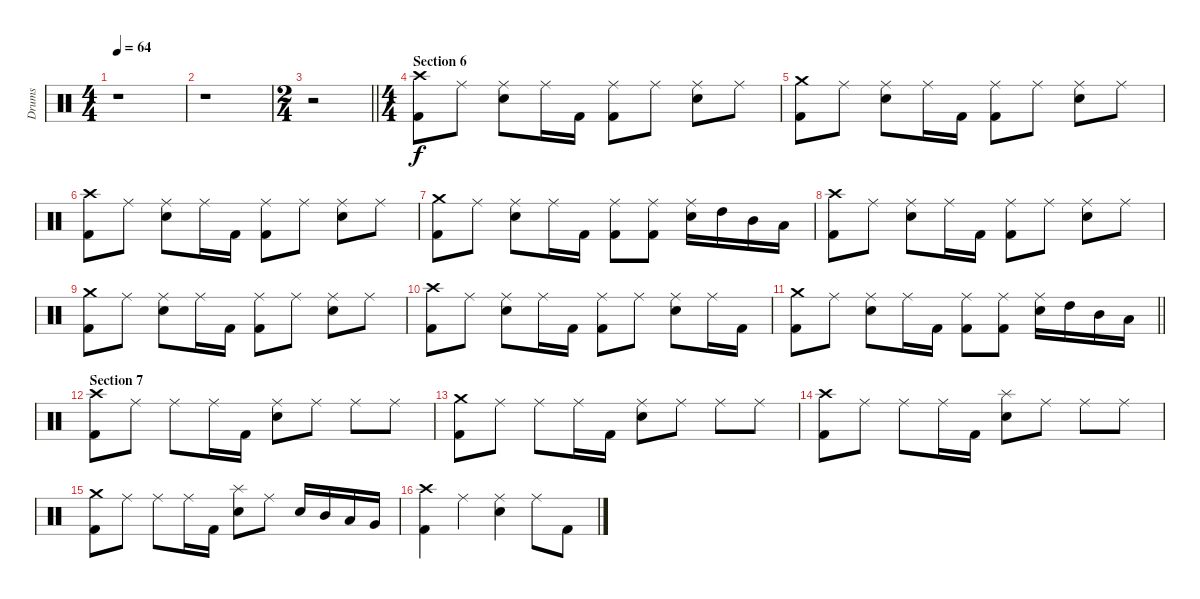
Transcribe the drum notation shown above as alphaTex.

\track ("Drums" "Drums") {instrument percussion}
\staff {score}
\articulation defaults
\ts (4 4)
\tempo 64
\clef neutral
\ks c
r.1{dy f} |
r.1 |
\ts (2 4)
\barLineRight lightlight
r.2 |
\ts (4 4)
\section ("" "Section 6")
("Crash high (hit)" "Kick (hit) 2").8 "Ride (middle)".8 ("Ride (middle)" "Electric Snare (hit)").8 "Ride (middle)".16 "Kick (hit) 2".16 ("Ride (middle)" "Kick (hit) 2").8 "Ride (middle)".8 ("Ride (middle)" "Electric Snare (hit)").8 "Ride (middle)".8 |
("Crash medium (hit)" "Kick (hit) 2").8 "Ride (middle)".8 ("Ride (middle)" "Electric Snare (hit)").8 "Ride (middle)".16 "Kick (hit) 2".16 ("Ride (middle)" "Kick (hit) 2").8 "Ride (middle)".8 ("Ride (middle)" "Electric Snare (hit)").8 "Ride (middle)".8 |
("Crash high (hit)" "Kick (hit) 2").8 "Ride (middle)".8 ("Ride (middle)" "Electric Snare (hit)").8 "Ride (middle)".16 "Kick (hit) 2".16 ("Ride (middle)" "Kick (hit) 2").8 "Ride (middle)".8 ("Ride (middle)" "Electric Snare (hit)").8 "Ride (middle)".8 |
("Crash medium (hit)" "Kick (hit) 2").8 "Ride (middle)".8 ("Ride (middle)" "Electric Snare (hit)").8 "Ride (middle)".16 "Kick (hit) 2".16 ("Ride (middle)" "Kick (hit) 2").8 ("Ride (middle)" "Kick (hit) 2").8 ("Ride (middle)" "Electric Snare (hit)").16 "High Tom (hit)".16 "Mid Tom (hit)".16 "Low Floor Tom (hit)".16 |
("Crash high (hit)" "Kick (hit) 2").8 "Ride (middle)".8 ("Ride (middle)" "Electric Snare (hit)").8 "Ride (middle)".16 "Kick (hit) 2".16 ("Ride (middle)" "Kick (hit) 2").8 "Ride (middle)".8 ("Ride (middle)" "Electric Snare (hit)").8 "Ride (middle)".8 |
("Crash medium (hit)" "Kick (hit) 2").8 "Ride (middle)".8 ("Ride (middle)" "Electric Snare (hit)").8 "Ride (middle)".16 "Kick (hit) 2".16 ("Ride (middle)" "Kick (hit) 2").8 "Ride (middle)".8 ("Ride (middle)" "Electric Snare (hit)").8 "Ride (middle)".8 |
("Crash high (hit)" "Kick (hit) 2").8 "Ride (middle)".8 ("Ride (middle)" "Electric Snare (hit)").8 "Ride (middle)".16 "Kick (hit) 2".16 ("Ride (middle)" "Kick (hit) 2").8 "Ride (middle)".8 ("Ride (middle)" "Electric Snare (hit)").8 "Ride (middle)".16 "Kick (hit) 2".16 |
\barLineRight lightlight
("Crash medium (hit)" "Kick (hit) 2").8 "Ride (middle)".8 ("Ride (middle)" "Electric Snare (hit)").8 "Ride (middle)".16 "Kick (hit) 2".16 ("Ride (middle)" "Kick (hit) 2").8 ("Ride (middle)" "Kick (hit) 2").8 ("Ride (middle)" "Electric Snare (hit)").16 "High Tom (hit)".16 "Mid Tom (hit)".16 "Low Floor Tom (hit)".16 |
\section ("" "Section 7")
("Crash high (hit)" "Kick (hit) 2").8 "Ride (middle)".8 "Ride (middle)".8 "Ride (middle)".16 "Kick (hit) 2".16 ("Ride (middle)" "Electric Snare (hit)").8 "Ride (middle)".8 "Ride (middle)".8 "Ride (middle)".8 |
("Crash medium (hit)" "Kick (hit) 2").8 "Ride (middle)".8 "Ride (middle)".8 "Ride (middle)".16 "Kick (hit) 2".16 ("Ride (middle)" "Electric Snare (hit)").8 "Ride (middle)".8 "Ride (middle)".8 "Ride (middle)".8 |
("Crash high (hit)" "Kick (hit) 2").8 "Ride (middle)".8 "Ride (middle)".8 "Ride (middle)".16 "Kick (hit) 2".16 ("Splash (hit)" "Electric Snare (hit)").8 "Ride (middle)".8 "Ride (middle)".8 "Ride (middle)".8 |
("Crash medium (hit)" "Kick (hit) 2").8 "Ride (middle)".8 "Ride (middle)".8 "Ride (middle)".16 "Kick (hit) 2".16 ("Splash (hit)" "Electric Snare (hit)").8 "Ride (middle)".8 "Electric Snare (hit)".16 "Mid Tom (hit)".16 "Low Tom (hit)".16 "Very Low Tom (hit)".16 |
("Crash high (hit)" "Kick (hit) 2").4 "Ride (middle)".4 ("Ride (middle)" "Electric Snare (hit)").4 "Ride (middle)".8 "Kick (hit) 2".8
